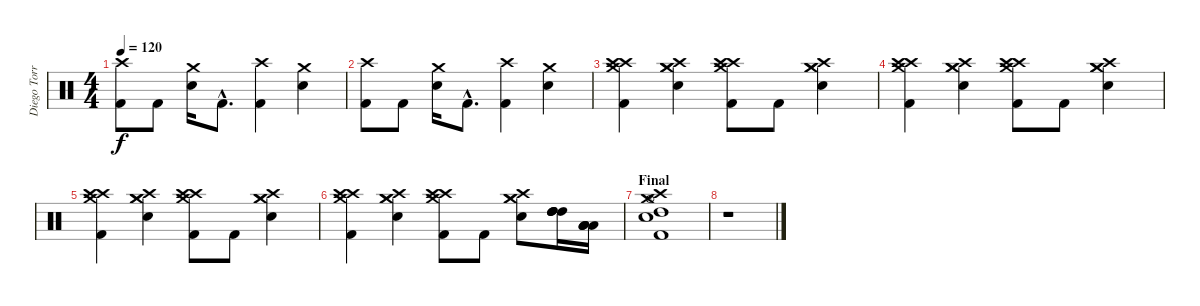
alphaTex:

\track ("Diego Torres [Bateria]" "Diego Torr") {instrument percussion}
\staff {score}
\articulation defaults
\ts (4 4)
\tempo 120
\clef neutral
\ks c
("Crash high (hit)" "Kick (hit) 2").8{dy f} "Kick (hit) 2".8 ("Crash medium (hit)" "Electric Snare (hit)").16 "Kick (hit) 2"{hac}.8{d} ("Crash high (hit)" "Kick (hit) 2").4 ("Crash medium (hit)" "Electric Snare (hit)").4 |
("Crash high (hit)" "Kick (hit) 2").8 "Kick (hit) 2".8 ("Crash medium (hit)" "Electric Snare (hit)").16 "Kick (hit) 2"{hac}.8{d} ("Crash high (hit)" "Kick (hit) 2").4 ("Crash medium (hit)" "Electric Snare (hit)").4 |
("Crash high (hit)" "Crash high (hit)" "Crash medium (hit)" "Kick (hit) 2").4 ("Crash medium (hit)" "Crash medium (hit)" "Crash high (hit)" "Electric Snare (hit)").4 ("Crash high (hit)" "Crash high (hit)" "Crash medium (hit)" "Kick (hit) 2").8 "Kick (hit) 2".8 ("Crash medium (hit)" "Crash medium (hit)" "Crash high (hit)" "Electric Snare (hit)").4 |
("Crash high (hit)" "Crash high (hit)" "Crash medium (hit)" "Kick (hit) 2").4 ("Crash medium (hit)" "Crash medium (hit)" "Crash high (hit)" "Electric Snare (hit)").4 ("Crash high (hit)" "Crash high (hit)" "Crash medium (hit)" "Kick (hit) 2").8 "Kick (hit) 2".8 ("Crash medium (hit)" "Crash medium (hit)" "Crash high (hit)" "Electric Snare (hit)").4 |
("Crash high (hit)" "Crash high (hit)" "Crash medium (hit)" "Kick (hit) 2").4 ("Crash medium (hit)" "Crash medium (hit)" "Crash high (hit)" "Electric Snare (hit)").4 ("Crash high (hit)" "Crash high (hit)" "Crash medium (hit)" "Kick (hit) 2").8 "Kick (hit) 2".8 ("Crash medium (hit)" "Crash medium (hit)" "Crash high (hit)" "Electric Snare (hit)").4 |
("Crash high (hit)" "Crash high (hit)" "Crash medium (hit)" "Kick (hit) 2").4 ("Crash medium (hit)" "Crash medium (hit)" "Crash high (hit)" "Electric Snare (hit)").4 ("Crash high (hit)" "Crash high (hit)" "Crash medium (hit)" "Kick (hit) 2").8 "Kick (hit) 2".8 ("Crash medium (hit)" "Crash medium (hit)" "Crash high (hit)" "Electric Snare (hit)").8 ("High Tom (hit)" "High Tom (hit)" "High Tom (hit)" "High Tom (hit)").16 ("Low Floor Tom (hit)" "Low Floor Tom (hit)" "Low Floor Tom (hit)" "Low Floor Tom (hit)").16 |
\section ("" "Final")
("Crash high (hit)" "Crash medium (hit)" "Hi-Hat (open)" "High Tom (hit)" "Electric Snare (hit)" "Kick (hit) 2").1 |
r.1
